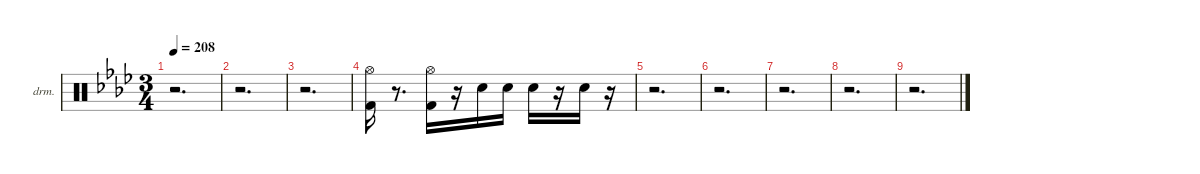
\hideDynamics
\bracketExtendMode nobrackets
\firstSystemTrackNameOrientation horizontal
\otherSystemsTrackNameOrientation horizontal
\track ("EZdrummer 3" "drm.") {instrument percussion}
\staff {score}
\articulation defaults
\ts (3 4)
\tempo 208
\clef neutral
\ks fminor
r.2{d dy ff beam Down} |
r.2{d beam Down} |
r.2{d beam Down} |
("Kick (hit) 2"{acc forcenatural} "Hi-Hat (open)"{acc b}).16{beam Down} r.8{d beam Down} ("Kick (hit) 2"{acc forcenatural} "Hi-Hat (open)"{acc b}).16{dy f beam Down} r.16{beam Down} "Snare (hit) 2"{acc forcenatural}.16{dy mp beam Down} "Snare (hit) 2"{acc forcenatural}.16{dy ppp beam Down} "Snare (hit) 2"{acc forcenatural}.16{dy ff beam Down} r.16{beam Down} "Snare (hit) 2"{acc forcenatural}.16{dy fff beam Down} r.16{beam Down} |
r.2{d beam Down} |
r.2{d beam Down} |
r.2{d beam Down} |
r.2{d beam Down} |
r.2{d beam Down}
